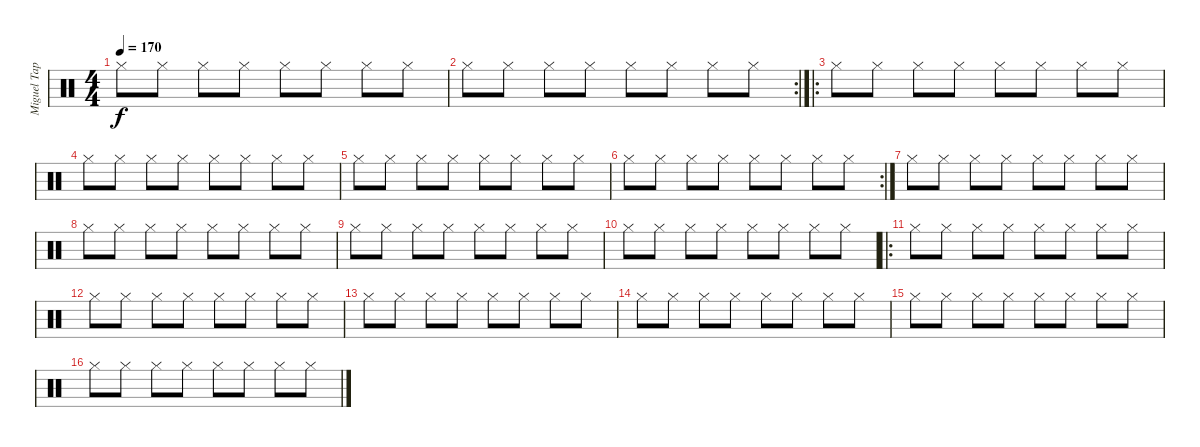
\track ("Miguel Tapia" "Miguel Tap") {instrument percussion}
\staff {score}
\articulation defaults
\ts (4 4)
\tempo 170
\clef neutral
\ks c "Hi-Hat (closed)".8{dy f} "Hi-Hat (closed)".8 "Hi-Hat (closed)".8 "Hi-Hat (closed)".8 "Hi-Hat (closed)".8 "Hi-Hat (closed)".8 "Hi-Hat (closed)".8 "Hi-Hat (closed)".8
|
\rc 2 "Hi-Hat (closed)".8 "Hi-Hat (closed)".8 "Hi-Hat (closed)".8 "Hi-Hat (closed)".8 "Hi-Hat (closed)".8 "Hi-Hat (closed)".8 "Hi-Hat (closed)".8 "Hi-Hat (closed)".8
|
\ro "Hi-Hat (closed)".8 "Hi-Hat (closed)".8 "Hi-Hat (closed)".8 "Hi-Hat (closed)".8 "Hi-Hat (closed)".8 "Hi-Hat (closed)".8 "Hi-Hat (closed)".8 "Hi-Hat (closed)".8
|
"Hi-Hat (closed)".8 "Hi-Hat (closed)".8 "Hi-Hat (closed)".8 "Hi-Hat (closed)".8 "Hi-Hat (closed)".8 "Hi-Hat (closed)".8 "Hi-Hat (closed)".8 "Hi-Hat (closed)".8 |
"Hi-Hat (closed)".8 "Hi-Hat (closed)".8 "Hi-Hat (closed)".8 "Hi-Hat (closed)".8 "Hi-Hat (closed)".8 "Hi-Hat (closed)".8 "Hi-Hat (closed)".8 "Hi-Hat (closed)".8 |
\rc 2 "Hi-Hat (closed)".8 "Hi-Hat (closed)".8 "Hi-Hat (closed)".8 "Hi-Hat (closed)".8 "Hi-Hat (closed)".8 "Hi-Hat (closed)".8 "Hi-Hat (closed)".8 "Hi-Hat (closed)".8
|
"Hi-Hat (closed)".8 "Hi-Hat (closed)".8 "Hi-Hat (closed)".8 "Hi-Hat (closed)".8 "Hi-Hat (closed)".8 "Hi-Hat (closed)".8 "Hi-Hat (closed)".8 "Hi-Hat (closed)".8 |
"Hi-Hat (closed)".8 "Hi-Hat (closed)".8 "Hi-Hat (closed)".8 "Hi-Hat (closed)".8 "Hi-Hat (closed)".8 "Hi-Hat (closed)".8 "Hi-Hat (closed)".8 "Hi-Hat (closed)".8 |
"Hi-Hat (closed)".8 "Hi-Hat (closed)".8 "Hi-Hat (closed)".8 "Hi-Hat (closed)".8 "Hi-Hat (closed)".8 "Hi-Hat (closed)".8 "Hi-Hat (closed)".8 "Hi-Hat (closed)".8 |
"Hi-Hat (closed)".8 "Hi-Hat (closed)".8 "Hi-Hat (closed)".8 "Hi-Hat (closed)".8 "Hi-Hat (closed)".8 "Hi-Hat (closed)".8 "Hi-Hat (closed)".8 "Hi-Hat (closed)".8 |
\ro "Hi-Hat (closed)".8 "Hi-Hat (closed)".8 "Hi-Hat (closed)".8 "Hi-Hat (closed)".8 "Hi-Hat (closed)".8 "Hi-Hat (closed)".8 "Hi-Hat (closed)".8 "Hi-Hat (closed)".8
|
"Hi-Hat (closed)".8 "Hi-Hat (closed)".8 "Hi-Hat (closed)".8 "Hi-Hat (closed)".8 "Hi-Hat (closed)".8 "Hi-Hat (closed)".8 "Hi-Hat (closed)".8 "Hi-Hat (closed)".8 |
"Hi-Hat (closed)".8 "Hi-Hat (closed)".8 "Hi-Hat (closed)".8 "Hi-Hat (closed)".8 "Hi-Hat (closed)".8 "Hi-Hat (closed)".8 "Hi-Hat (closed)".8 "Hi-Hat (closed)".8 |
"Hi-Hat (closed)".8 "Hi-Hat (closed)".8 "Hi-Hat (closed)".8 "Hi-Hat (closed)".8 "Hi-Hat (closed)".8 "Hi-Hat (closed)".8 "Hi-Hat (closed)".8 "Hi-Hat (closed)".8 |
"Hi-Hat (closed)".8 "Hi-Hat (closed)".8 "Hi-Hat (closed)".8 "Hi-Hat (closed)".8 "Hi-Hat (closed)".8 "Hi-Hat (closed)".8 "Hi-Hat (closed)".8 "Hi-Hat (closed)".8 |
"Hi-Hat (closed)".8 "Hi-Hat (closed)".8 "Hi-Hat (closed)".8 "Hi-Hat (closed)".8 "Hi-Hat (closed)".8 "Hi-Hat (closed)".8 "Hi-Hat (closed)".8 "Hi-Hat (closed)".8
